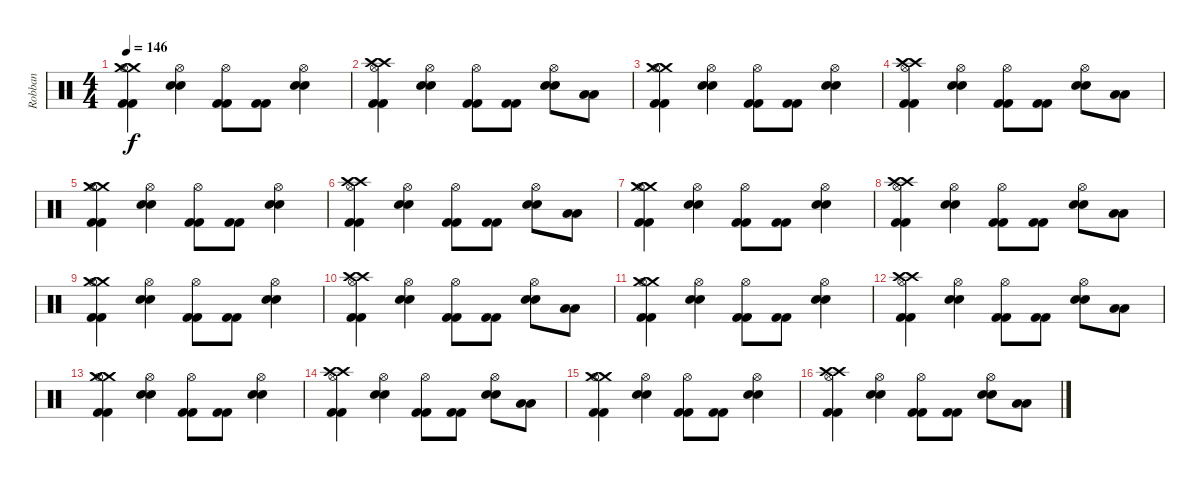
\track ("Robban" "Robban") {instrument percussion}
\staff {score}
\articulation defaults
\ts (4 4)
\tempo 146
\clef neutral
\ks c
("Crash medium (hit)" "Crash medium (hit)" "Hi-Hat (open)" "Kick (hit) 2" "Kick (hit) 2").4{dy f} ("Hi-Hat (open)" "Electric Snare (hit)" "Electric Snare (hit)").4 ("Hi-Hat (open)" "Kick (hit) 2" "Kick (hit) 2").8 ("Kick (hit) 2" "Kick (hit) 2").8 ("Hi-Hat (open)" "Electric Snare (hit)" "Electric Snare (hit)").4 |
("Crash high (hit)" "Crash high (hit)" "Hi-Hat (open)" "Kick (hit) 2" "Kick (hit) 2").4 ("Hi-Hat (open)" "Electric Snare (hit)" "Electric Snare (hit)").4 ("Hi-Hat (open)" "Kick (hit) 2" "Kick (hit) 2").8 ("Kick (hit) 2" "Kick (hit) 2").8 ("Hi-Hat (open)" "Electric Snare (hit)" "Electric Snare (hit)").8 ("Low Tom (hit)" "Low Tom (hit)").8 |
("Crash medium (hit)" "Crash medium (hit)" "Hi-Hat (open)" "Kick (hit) 2" "Kick (hit) 2").4 ("Hi-Hat (open)" "Electric Snare (hit)" "Electric Snare (hit)").4 ("Hi-Hat (open)" "Kick (hit) 2" "Kick (hit) 2").8 ("Kick (hit) 2" "Kick (hit) 2").8 ("Hi-Hat (open)" "Electric Snare (hit)" "Electric Snare (hit)").4 |
("Crash high (hit)" "Crash high (hit)" "Hi-Hat (open)" "Kick (hit) 2" "Kick (hit) 2").4 ("Hi-Hat (open)" "Electric Snare (hit)" "Electric Snare (hit)").4 ("Hi-Hat (open)" "Kick (hit) 2" "Kick (hit) 2").8 ("Kick (hit) 2" "Kick (hit) 2").8 ("Hi-Hat (open)" "Electric Snare (hit)" "Electric Snare (hit)").8 ("Low Floor Tom (hit)" "Low Floor Tom (hit)").8 |
("Crash medium (hit)" "Crash medium (hit)" "Hi-Hat (open)" "Kick (hit) 2" "Kick (hit) 2").4 ("Hi-Hat (open)" "Electric Snare (hit)" "Electric Snare (hit)").4 ("Hi-Hat (open)" "Kick (hit) 2" "Kick (hit) 2").8 ("Kick (hit) 2" "Kick (hit) 2").8 ("Hi-Hat (open)" "Electric Snare (hit)" "Electric Snare (hit)").4 |
("Crash high (hit)" "Crash high (hit)" "Hi-Hat (open)" "Kick (hit) 2" "Kick (hit) 2").4 ("Hi-Hat (open)" "Electric Snare (hit)" "Electric Snare (hit)").4 ("Hi-Hat (open)" "Kick (hit) 2" "Kick (hit) 2").8 ("Kick (hit) 2" "Kick (hit) 2").8 ("Hi-Hat (open)" "Electric Snare (hit)" "Electric Snare (hit)").8 ("Low Floor Tom (hit)" "Low Floor Tom (hit)").8 |
("Crash medium (hit)" "Crash medium (hit)" "Hi-Hat (open)" "Kick (hit) 2" "Kick (hit) 2").4 ("Hi-Hat (open)" "Electric Snare (hit)" "Electric Snare (hit)").4 ("Hi-Hat (open)" "Kick (hit) 2" "Kick (hit) 2").8 ("Kick (hit) 2" "Kick (hit) 2").8 ("Hi-Hat (open)" "Electric Snare (hit)" "Electric Snare (hit)").4 |
("Crash high (hit)" "Crash high (hit)" "Hi-Hat (open)" "Kick (hit) 2" "Kick (hit) 2").4 ("Hi-Hat (open)" "Electric Snare (hit)" "Electric Snare (hit)").4 ("Hi-Hat (open)" "Kick (hit) 2" "Kick (hit) 2").8 ("Kick (hit) 2" "Kick (hit) 2").8 ("Hi-Hat (open)" "Electric Snare (hit)" "Electric Snare (hit)").8 ("Low Floor Tom (hit)" "Low Floor Tom (hit)").8 |
("Crash medium (hit)" "Crash medium (hit)" "Hi-Hat (open)" "Kick (hit) 2" "Kick (hit) 2").4 ("Hi-Hat (open)" "Electric Snare (hit)" "Electric Snare (hit)").4 ("Hi-Hat (open)" "Kick (hit) 2" "Kick (hit) 2").8 ("Kick (hit) 2" "Kick (hit) 2").8 ("Hi-Hat (open)" "Electric Snare (hit)" "Electric Snare (hit)").4 |
("Crash high (hit)" "Crash high (hit)" "Hi-Hat (open)" "Kick (hit) 2" "Kick (hit) 2").4 ("Hi-Hat (open)" "Electric Snare (hit)" "Electric Snare (hit)").4 ("Hi-Hat (open)" "Kick (hit) 2" "Kick (hit) 2").8 ("Kick (hit) 2" "Kick (hit) 2").8 ("Hi-Hat (open)" "Electric Snare (hit)" "Electric Snare (hit)").8 ("Low Floor Tom (hit)" "Low Floor Tom (hit)").8 |
("Crash medium (hit)" "Crash medium (hit)" "Hi-Hat (open)" "Kick (hit) 2" "Kick (hit) 2").4 ("Hi-Hat (open)" "Electric Snare (hit)" "Electric Snare (hit)").4 ("Hi-Hat (open)" "Kick (hit) 2" "Kick (hit) 2").8 ("Kick (hit) 2" "Kick (hit) 2").8 ("Hi-Hat (open)" "Electric Snare (hit)" "Electric Snare (hit)").4 |
("Crash high (hit)" "Crash high (hit)" "Hi-Hat (open)" "Kick (hit) 2" "Kick (hit) 2").4 ("Hi-Hat (open)" "Electric Snare (hit)" "Electric Snare (hit)").4 ("Hi-Hat (open)" "Kick (hit) 2" "Kick (hit) 2").8 ("Kick (hit) 2" "Kick (hit) 2").8 ("Hi-Hat (open)" "Electric Snare (hit)" "Electric Snare (hit)").8 ("Low Floor Tom (hit)" "Low Floor Tom (hit)").8 |
("Crash medium (hit)" "Crash medium (hit)" "Hi-Hat (open)" "Kick (hit) 2" "Kick (hit) 2").4 ("Hi-Hat (open)" "Electric Snare (hit)" "Electric Snare (hit)").4 ("Hi-Hat (open)" "Kick (hit) 2" "Kick (hit) 2").8 ("Kick (hit) 2" "Kick (hit) 2").8 ("Hi-Hat (open)" "Electric Snare (hit)" "Electric Snare (hit)").4 |
("Crash high (hit)" "Crash high (hit)" "Hi-Hat (open)" "Kick (hit) 2" "Kick (hit) 2").4 ("Hi-Hat (open)" "Electric Snare (hit)" "Electric Snare (hit)").4 ("Hi-Hat (open)" "Kick (hit) 2" "Kick (hit) 2").8 ("Kick (hit) 2" "Kick (hit) 2").8 ("Hi-Hat (open)" "Electric Snare (hit)" "Electric Snare (hit)").8 ("Low Floor Tom (hit)" "Low Floor Tom (hit)").8 |
("Crash medium (hit)" "Crash medium (hit)" "Hi-Hat (open)" "Kick (hit) 2" "Kick (hit) 2").4 ("Hi-Hat (open)" "Electric Snare (hit)" "Electric Snare (hit)").4 ("Hi-Hat (open)" "Kick (hit) 2" "Kick (hit) 2").8 ("Kick (hit) 2" "Kick (hit) 2").8 ("Hi-Hat (open)" "Electric Snare (hit)" "Electric Snare (hit)").4 |
("Crash high (hit)" "Crash high (hit)" "Hi-Hat (open)" "Kick (hit) 2" "Kick (hit) 2").4 ("Hi-Hat (open)" "Electric Snare (hit)" "Electric Snare (hit)").4 ("Hi-Hat (open)" "Kick (hit) 2" "Kick (hit) 2").8 ("Kick (hit) 2" "Kick (hit) 2").8 ("Hi-Hat (open)" "Electric Snare (hit)" "Electric Snare (hit)").8 ("Low Floor Tom (hit)" "Low Floor Tom (hit)").8
